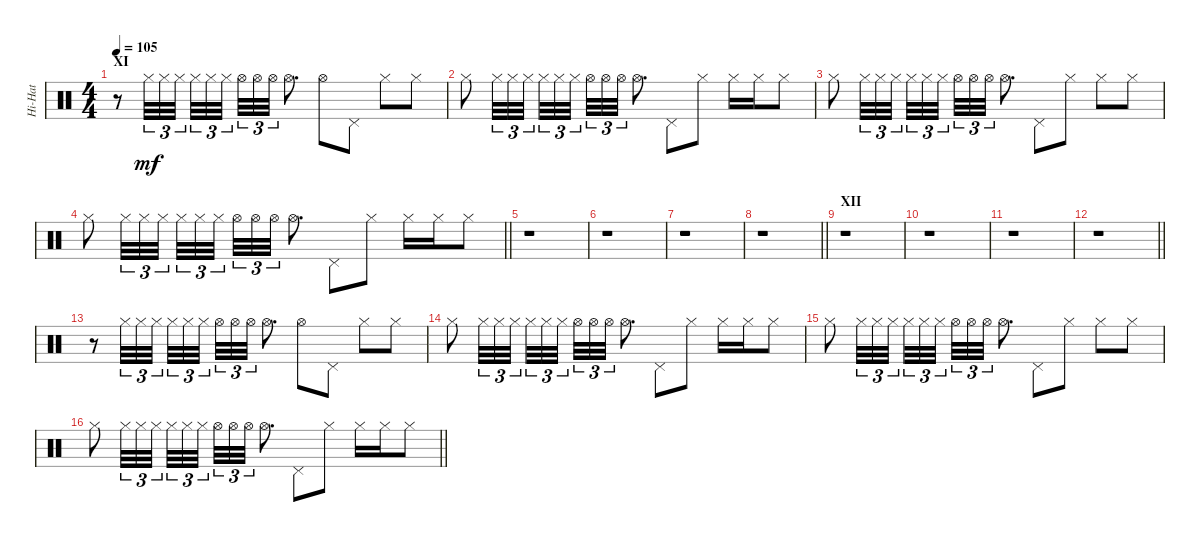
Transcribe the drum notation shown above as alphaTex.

\track ("Hi-Hat" "Hi-Hat") {instrument percussion}
\staff {score}
\articulation defaults
\ts (4 4)
\section ("" "XI")
\tempo 105
\clef neutral
\ks c
r.8{dy mf} "Hi-Hat (closed)".32{tu (3 2)} "Hi-Hat (closed)".32{tu (3 2)} "Hi-Hat (closed)".32{tu (3 2) beam splitsecondary} "Hi-Hat (closed)".32{tu (3 2)} "Hi-Hat (closed)".32{tu (3 2)} "Hi-Hat (closed)".32{tu (3 2)} "Hi-Hat (open)".32{tu (3 2)} "Hi-Hat (open)".32{tu (3 2)} "Hi-Hat (open)".32{tu (3 2)} "Hi-Hat (open)".8{d} "Hi-Hat (open)".8 "Pedal Hi-Hat (hit)".8 "Hi-Hat (closed)".8 "Hi-Hat (closed)".8 |
"Hi-Hat (closed)".8 "Hi-Hat (closed)".32{tu (3 2)} "Hi-Hat (closed)".32{tu (3 2)} "Hi-Hat (closed)".32{tu (3 2) beam splitsecondary} "Hi-Hat (closed)".32{tu (3 2)} "Hi-Hat (closed)".32{tu (3 2)} "Hi-Hat (closed)".32{tu (3 2)} "Hi-Hat (open)".32{tu (3 2)} "Hi-Hat (open)".32{tu (3 2)} "Hi-Hat (open)".32{tu (3 2)} "Hi-Hat (open)".8{d} "Pedal Hi-Hat (hit)".8 "Hi-Hat (closed)".8 "Hi-Hat (closed)".16 "Hi-Hat (closed)".16 "Hi-Hat (closed)".8 |
"Hi-Hat (closed)".8 "Hi-Hat (closed)".32{tu (3 2)} "Hi-Hat (closed)".32{tu (3 2)} "Hi-Hat (closed)".32{tu (3 2) beam splitsecondary} "Hi-Hat (closed)".32{tu (3 2)} "Hi-Hat (closed)".32{tu (3 2)} "Hi-Hat (closed)".32{tu (3 2)} "Hi-Hat (open)".32{tu (3 2)} "Hi-Hat (open)".32{tu (3 2)} "Hi-Hat (open)".32{tu (3 2)} "Hi-Hat (open)".8{d} "Pedal Hi-Hat (hit)".8 "Hi-Hat (closed)".8 "Hi-Hat (closed)".8 "Hi-Hat (closed)".8 |
\barLineRight lightlight "Hi-Hat (closed)".8 "Hi-Hat (closed)".32{tu (3 2)} "Hi-Hat (closed)".32{tu (3 2)} "Hi-Hat (closed)".32{tu (3 2) beam splitsecondary} "Hi-Hat (closed)".32{tu (3 2)} "Hi-Hat (closed)".32{tu (3 2)} "Hi-Hat (closed)".32{tu (3 2)} "Hi-Hat (open)".32{tu (3 2)} "Hi-Hat (open)".32{tu (3 2)} "Hi-Hat (open)".32{tu (3 2)} "Hi-Hat (open)".8{d} "Pedal Hi-Hat (hit)".8 "Hi-Hat (closed)".8 "Hi-Hat (closed)".16 "Hi-Hat (closed)".16 "Hi-Hat (closed)".8
|
r.1 |
r.1 |
r.1 |
\barLineRight lightlight
r.1 |
\section ("" "XII")
r.1 |
r.1 |
r.1 |
\barLineRight lightlight
r.1 |
r.8 "Hi-Hat (closed)".32{tu (3 2)} "Hi-Hat (closed)".32{tu (3 2)} "Hi-Hat (closed)".32{tu (3 2) beam splitsecondary} "Hi-Hat (closed)".32{tu (3 2)} "Hi-Hat (closed)".32{tu (3 2)} "Hi-Hat (closed)".32{tu (3 2)} "Hi-Hat (open)".32{tu (3 2)} "Hi-Hat (open)".32{tu (3 2)} "Hi-Hat (open)".32{tu (3 2)} "Hi-Hat (open)".8{d} "Hi-Hat (open)".8 "Pedal Hi-Hat (hit)".8 "Hi-Hat (closed)".8 "Hi-Hat (closed)".8 |
"Hi-Hat (closed)".8 "Hi-Hat (closed)".32{tu (3 2)} "Hi-Hat (closed)".32{tu (3 2)} "Hi-Hat (closed)".32{tu (3 2) beam splitsecondary} "Hi-Hat (closed)".32{tu (3 2)} "Hi-Hat (closed)".32{tu (3 2)} "Hi-Hat (closed)".32{tu (3 2)} "Hi-Hat (open)".32{tu (3 2)} "Hi-Hat (open)".32{tu (3 2)} "Hi-Hat (open)".32{tu (3 2)} "Hi-Hat (open)".8{d} "Pedal Hi-Hat (hit)".8 "Hi-Hat (closed)".8 "Hi-Hat (closed)".16 "Hi-Hat (closed)".16 "Hi-Hat (closed)".8 |
"Hi-Hat (closed)".8 "Hi-Hat (closed)".32{tu (3 2)} "Hi-Hat (closed)".32{tu (3 2)} "Hi-Hat (closed)".32{tu (3 2) beam splitsecondary} "Hi-Hat (closed)".32{tu (3 2)} "Hi-Hat (closed)".32{tu (3 2)} "Hi-Hat (closed)".32{tu (3 2)} "Hi-Hat (open)".32{tu (3 2)} "Hi-Hat (open)".32{tu (3 2)} "Hi-Hat (open)".32{tu (3 2)} "Hi-Hat (open)".8{d} "Pedal Hi-Hat (hit)".8 "Hi-Hat (closed)".8 "Hi-Hat (closed)".8 "Hi-Hat (closed)".8 |
\barLineRight lightlight "Hi-Hat (closed)".8 "Hi-Hat (closed)".32{tu (3 2)} "Hi-Hat (closed)".32{tu (3 2)} "Hi-Hat (closed)".32{tu (3 2) beam splitsecondary} "Hi-Hat (closed)".32{tu (3 2)} "Hi-Hat (closed)".32{tu (3 2)} "Hi-Hat (closed)".32{tu (3 2)} "Hi-Hat (open)".32{tu (3 2)} "Hi-Hat (open)".32{tu (3 2)} "Hi-Hat (open)".32{tu (3 2)} "Hi-Hat (open)".8{d} "Pedal Hi-Hat (hit)".8 "Hi-Hat (closed)".8 "Hi-Hat (closed)".16 "Hi-Hat (closed)".16 "Hi-Hat (closed)".8
